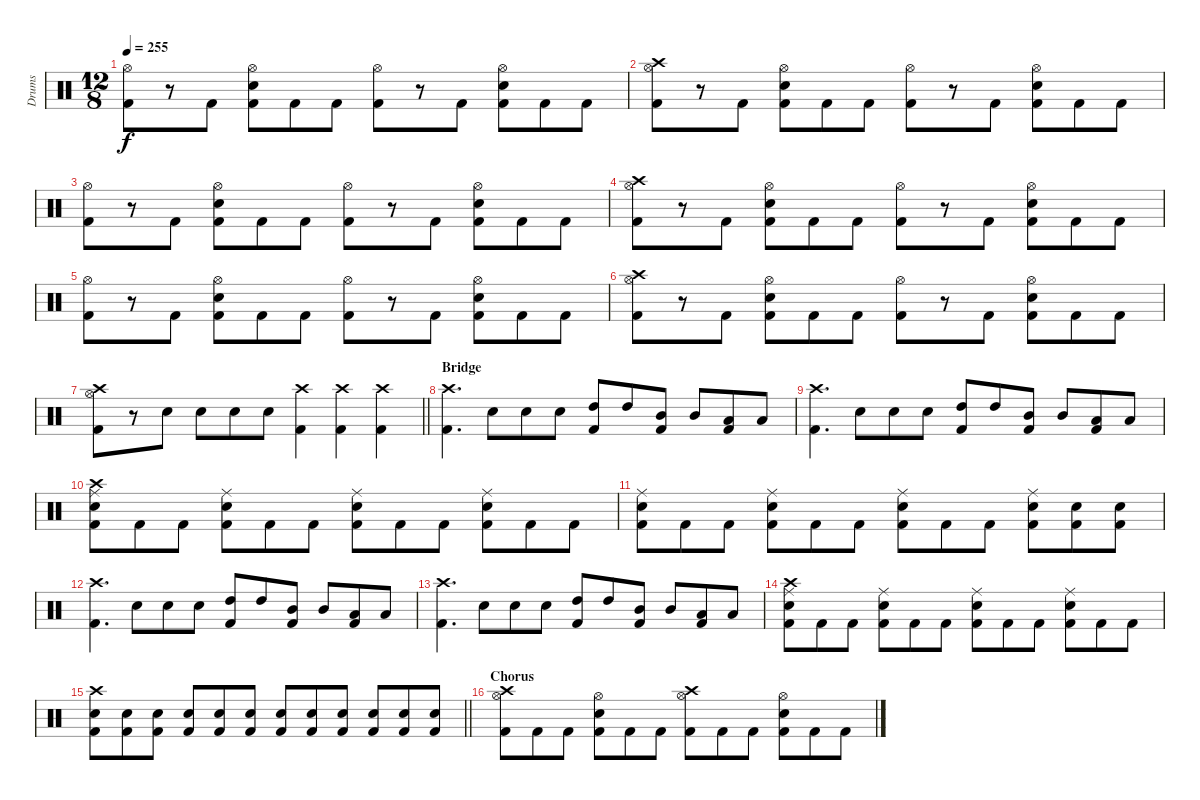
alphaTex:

\track ("Drums" "Drums") {instrument percussion}
\staff {score}
\articulation defaults
\ts (12 8)
\tempo 255
\clef neutral
\ks c
("Hi-Hat (open)" "Kick (hit) 2").8{dy f} r.8 "Kick (hit) 2".8 ("Hi-Hat (open)" "Snare (hit) 2" "Kick (hit) 2").8 "Kick (hit) 2".8 "Kick (hit) 2".8 ("Hi-Hat (open)" "Kick (hit) 2").8 r.8 "Kick (hit) 2".8 ("Hi-Hat (open)" "Snare (hit) 2" "Kick (hit) 2").8 "Kick (hit) 2".8 "Kick (hit) 2".8 |
("Crash high (hit)" "Hi-Hat (open)" "Kick (hit) 2").8 r.8 "Kick (hit) 2".8 ("Hi-Hat (open)" "Snare (hit) 2" "Kick (hit) 2").8 "Kick (hit) 2".8 "Kick (hit) 2".8 ("Hi-Hat (open)" "Kick (hit) 2").8 r.8 "Kick (hit) 2".8 ("Hi-Hat (open)" "Snare (hit) 2" "Kick (hit) 2").8 "Kick (hit) 2".8 "Kick (hit) 2".8 |
("Hi-Hat (open)" "Kick (hit) 2").8 r.8 "Kick (hit) 2".8 ("Hi-Hat (open)" "Snare (hit) 2" "Kick (hit) 2").8 "Kick (hit) 2".8 "Kick (hit) 2".8 ("Hi-Hat (open)" "Kick (hit) 2").8 r.8 "Kick (hit) 2".8 ("Hi-Hat (open)" "Snare (hit) 2" "Kick (hit) 2").8 "Kick (hit) 2".8 "Kick (hit) 2".8 |
("Crash high (hit)" "Hi-Hat (open)" "Kick (hit) 2").8 r.8 "Kick (hit) 2".8 ("Hi-Hat (open)" "Snare (hit) 2" "Kick (hit) 2").8 "Kick (hit) 2".8 "Kick (hit) 2".8 ("Hi-Hat (open)" "Kick (hit) 2").8 r.8 "Kick (hit) 2".8 ("Hi-Hat (open)" "Snare (hit) 2" "Kick (hit) 2").8 "Kick (hit) 2".8 "Kick (hit) 2".8 |
("Hi-Hat (open)" "Kick (hit) 2").8 r.8 "Kick (hit) 2".8 ("Hi-Hat (open)" "Snare (hit) 2" "Kick (hit) 2").8 "Kick (hit) 2".8 "Kick (hit) 2".8 ("Hi-Hat (open)" "Kick (hit) 2").8 r.8 "Kick (hit) 2".8 ("Hi-Hat (open)" "Snare (hit) 2" "Kick (hit) 2").8 "Kick (hit) 2".8 "Kick (hit) 2".8 |
("Crash high (hit)" "Hi-Hat (open)" "Kick (hit) 2").8 r.8 "Kick (hit) 2".8 ("Hi-Hat (open)" "Snare (hit) 2" "Kick (hit) 2").8 "Kick (hit) 2".8 "Kick (hit) 2".8 ("Hi-Hat (open)" "Kick (hit) 2").8 r.8 "Kick (hit) 2".8 ("Hi-Hat (open)" "Snare (hit) 2" "Kick (hit) 2").8 "Kick (hit) 2".8 "Kick (hit) 2".8 |
\barLineRight lightlight
("Crash high (hit)" "Hi-Hat (open)" "Kick (hit) 2").8 r.8 "Snare (hit) 2".8 "Snare (hit) 2".8 "Snare (hit) 2".8 "Snare (hit) 2".8 ("Crash high (hit)" "Kick (hit) 2").4 ("Crash high (hit)" "Kick (hit) 2").4 ("Crash high (hit)" "Kick (hit) 2").4 |
\section ("" "Bridge")
("Crash high (hit)" "Kick (hit) 2").4{d} "Snare (hit) 2".8 "Snare (hit) 2".8 "Snare (hit) 2".8 ("High Tom (hit)" "Kick (hit) 2").8 "High Tom (hit)".8 ("Mid Tom (hit)" "Kick (hit) 2").8 "Mid Tom (hit)".8 ("Low Tom (hit)" "Kick (hit) 2").8 "Low Tom (hit)".8 |
("Crash high (hit)" "Kick (hit) 2").4{d} "Snare (hit) 2".8 "Snare (hit) 2".8 "Snare (hit) 2".8 ("High Tom (hit)" "Kick (hit) 2").8 "High Tom (hit)".8 ("Mid Tom (hit)" "Kick (hit) 2").8 "Mid Tom (hit)".8 ("Low Tom (hit)" "Kick (hit) 2").8 "Low Tom (hit)".8 |
("Crash high (hit)" "Ride (middle)" "Snare (hit) 2" "Kick (hit) 2").8 "Kick (hit) 2".8 "Kick (hit) 2".8 ("Ride (middle)" "Snare (hit) 2" "Kick (hit) 2").8 "Kick (hit) 2".8 "Kick (hit) 2".8 ("Ride (middle)" "Snare (hit) 2" "Kick (hit) 2").8 "Kick (hit) 2".8 "Kick (hit) 2".8 ("Ride (middle)" "Snare (hit) 2" "Kick (hit) 2").8 "Kick (hit) 2".8 "Kick (hit) 2".8 |
("Ride (middle)" "Snare (hit) 2" "Kick (hit) 2").8 "Kick (hit) 2".8 "Kick (hit) 2".8 ("Ride (middle)" "Snare (hit) 2" "Kick (hit) 2").8 "Kick (hit) 2".8 "Kick (hit) 2".8 ("Ride (middle)" "Snare (hit) 2" "Kick (hit) 2").8 "Kick (hit) 2".8 "Kick (hit) 2".8 ("Ride (middle)" "Snare (hit) 2" "Kick (hit) 2").8 ("Snare (hit) 2" "Kick (hit) 2").8 ("Snare (hit) 2" "Kick (hit) 2").8 |
("Crash high (hit)" "Kick (hit) 2").4{d} "Snare (hit) 2".8 "Snare (hit) 2".8 "Snare (hit) 2".8 ("High Tom (hit)" "Kick (hit) 2").8 "High Tom (hit)".8 ("Mid Tom (hit)" "Kick (hit) 2").8 "Mid Tom (hit)".8 ("Low Tom (hit)" "Kick (hit) 2").8 "Low Tom (hit)".8 |
("Crash high (hit)" "Kick (hit) 2").4{d} "Snare (hit) 2".8 "Snare (hit) 2".8 "Snare (hit) 2".8 ("High Tom (hit)" "Kick (hit) 2").8 "High Tom (hit)".8 ("Mid Tom (hit)" "Kick (hit) 2").8 "Mid Tom (hit)".8 ("Low Tom (hit)" "Kick (hit) 2").8 "Low Tom (hit)".8 |
("Crash high (hit)" "Ride (middle)" "Snare (hit) 2" "Kick (hit) 2").8 "Kick (hit) 2".8 "Kick (hit) 2".8 ("Ride (middle)" "Snare (hit) 2" "Kick (hit) 2").8 "Kick (hit) 2".8 "Kick (hit) 2".8 ("Ride (middle)" "Snare (hit) 2" "Kick (hit) 2").8 "Kick (hit) 2".8 "Kick (hit) 2".8 ("Ride (middle)" "Snare (hit) 2" "Kick (hit) 2").8 "Kick (hit) 2".8 "Kick (hit) 2".8 |
\barLineRight lightlight
("Crash high (hit)" "Snare (hit) 2" "Kick (hit) 2").8 ("Snare (hit) 2" "Kick (hit) 2").8 ("Snare (hit) 2" "Kick (hit) 2").8 ("Snare (hit) 2" "Kick (hit) 2").8 ("Snare (hit) 2" "Kick (hit) 2").8 ("Snare (hit) 2" "Kick (hit) 2").8 ("Snare (hit) 2" "Kick (hit) 2").8 ("Snare (hit) 2" "Kick (hit) 2").8 ("Snare (hit) 2" "Kick (hit) 2").8 ("Snare (hit) 2" "Kick (hit) 2").8 ("Snare (hit) 2" "Kick (hit) 2").8 ("Snare (hit) 2" "Kick (hit) 2").8 |
\section ("" "Chorus")
("Crash high (hit)" "Hi-Hat (open)" "Kick (hit) 2").8 "Kick (hit) 2".8 "Kick (hit) 2".8 ("Hi-Hat (open)" "Snare (hit) 2" "Kick (hit) 2").8 "Kick (hit) 2".8 "Kick (hit) 2".8 ("Crash high (hit)" "Hi-Hat (open)" "Kick (hit) 2").8 "Kick (hit) 2".8 "Kick (hit) 2".8 ("Hi-Hat (open)" "Snare (hit) 2" "Kick (hit) 2").8 "Kick (hit) 2".8 "Kick (hit) 2".8
